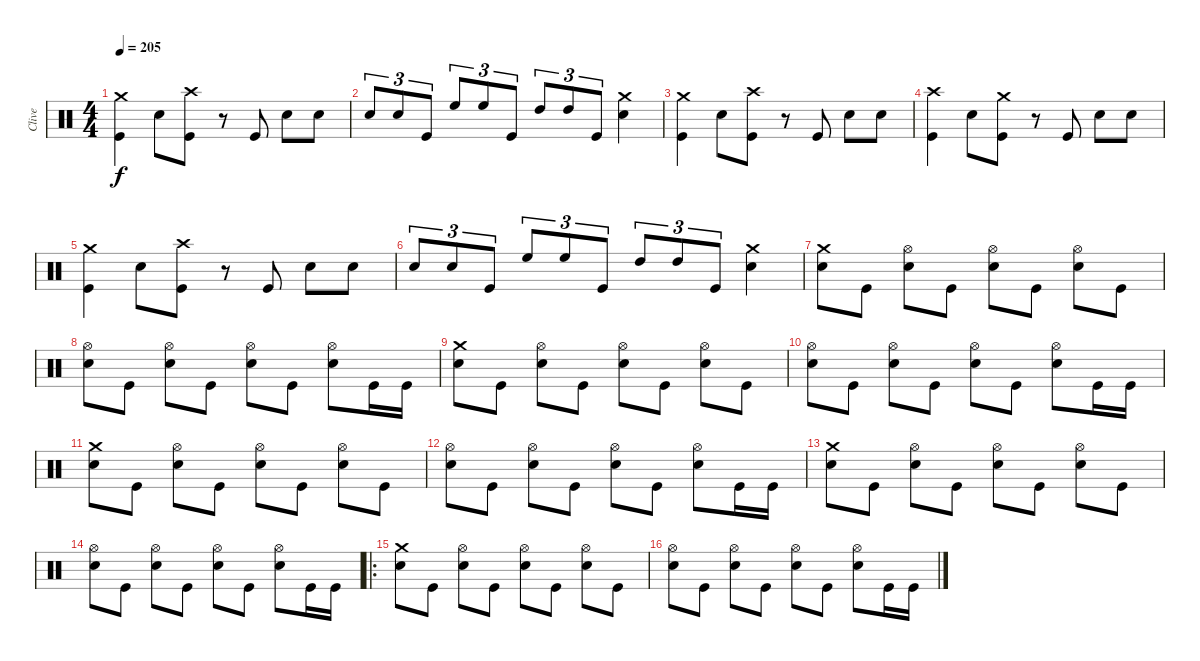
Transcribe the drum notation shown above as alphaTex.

\track ("Clive" "Clive") {instrument percussion}
\staff {score}
\articulation defaults
\ts (4 4)
\tempo 205
\clef neutral
\ks c
("Crash medium (hit)" "Kick (hit)").4{dy f} "Snare (hit) 2".8 ("Crash high (hit)" "Kick (hit)").8 r.8 "Kick (hit)".8 "Snare (hit) 2".8 "Snare (hit) 2".8 |
"Snare (hit) 2".8{tu (3 2)} "Snare (hit) 2".8{tu (3 2)} "Kick (hit)".8{tu (3 2)} "High Floor Tom (hit)".8{tu (3 2)} "High Floor Tom (hit)".8{tu (3 2)} "Kick (hit)".8{tu (3 2)} "High Tom (hit)".8{tu (3 2)} "High Tom (hit)".8{tu (3 2)} "Kick (hit)".8{tu (3 2)} ("Crash medium (hit)" "Snare (hit) 2").4 |
("Crash medium (hit)" "Kick (hit)").4 "Snare (hit) 2".8 ("Crash high (hit)" "Kick (hit)").8 r.8 "Kick (hit)".8 "Snare (hit) 2".8 "Snare (hit) 2".8 |
("Crash high (hit)" "Kick (hit)").4 "Snare (hit) 2".8 ("Crash medium (hit)" "Kick (hit)").8 r.8 "Kick (hit)".8 "Snare (hit) 2".8 "Snare (hit) 2".8 |
("Crash medium (hit)" "Kick (hit)").4 "Snare (hit) 2".8 ("Crash high (hit)" "Kick (hit)").8 r.8 "Kick (hit)".8 "Snare (hit) 2".8 "Snare (hit) 2".8 |
"Snare (hit) 2".8{tu (3 2)} "Snare (hit) 2".8{tu (3 2)} "Kick (hit)".8{tu (3 2)} "High Floor Tom (hit)".8{tu (3 2)} "High Floor Tom (hit)".8{tu (3 2)} "Kick (hit)".8{tu (3 2)} "High Tom (hit)".8{tu (3 2)} "High Tom (hit)".8{tu (3 2)} "Kick (hit)".8{tu (3 2)} ("Crash medium (hit)" "Snare (hit) 2").4 |
("Crash medium (hit)" "Snare (hit) 2").8 "Kick (hit)".8 ("Hi-Hat (open)" "Snare (hit) 2").8 "Kick (hit)".8 ("Hi-Hat (open)" "Snare (hit) 2").8 "Kick (hit)".8 ("Hi-Hat (open)" "Snare (hit) 2").8 "Kick (hit)".8 |
("Hi-Hat (open)" "Snare (hit) 2").8 "Kick (hit)".8 ("Hi-Hat (open)" "Snare (hit) 2").8 "Kick (hit)".8 ("Hi-Hat (open)" "Snare (hit) 2").8 "Kick (hit)".8 ("Hi-Hat (open)" "Snare (hit) 2").8 "Kick (hit)".16 "Kick (hit)".16 |
("Crash medium (hit)" "Snare (hit) 2").8 "Kick (hit)".8 ("Hi-Hat (open)" "Snare (hit) 2").8 "Kick (hit)".8 ("Hi-Hat (open)" "Snare (hit) 2").8 "Kick (hit)".8 ("Hi-Hat (open)" "Snare (hit) 2").8 "Kick (hit)".8 |
("Hi-Hat (open)" "Snare (hit) 2").8 "Kick (hit)".8 ("Hi-Hat (open)" "Snare (hit) 2").8 "Kick (hit)".8 ("Hi-Hat (open)" "Snare (hit) 2").8 "Kick (hit)".8 ("Hi-Hat (open)" "Snare (hit) 2").8 "Kick (hit)".16 "Kick (hit)".16 |
("Crash medium (hit)" "Snare (hit) 2").8 "Kick (hit)".8 ("Hi-Hat (open)" "Snare (hit) 2").8 "Kick (hit)".8 ("Hi-Hat (open)" "Snare (hit) 2").8 "Kick (hit)".8 ("Hi-Hat (open)" "Snare (hit) 2").8 "Kick (hit)".8 |
("Hi-Hat (open)" "Snare (hit) 2").8 "Kick (hit)".8 ("Hi-Hat (open)" "Snare (hit) 2").8 "Kick (hit)".8 ("Hi-Hat (open)" "Snare (hit) 2").8 "Kick (hit)".8 ("Hi-Hat (open)" "Snare (hit) 2").8 "Kick (hit)".16 "Kick (hit)".16 |
("Crash medium (hit)" "Snare (hit) 2").8 "Kick (hit)".8 ("Hi-Hat (open)" "Snare (hit) 2").8 "Kick (hit)".8 ("Hi-Hat (open)" "Snare (hit) 2").8 "Kick (hit)".8 ("Hi-Hat (open)" "Snare (hit) 2").8 "Kick (hit)".8 |
("Hi-Hat (open)" "Snare (hit) 2").8 "Kick (hit)".8 ("Hi-Hat (open)" "Snare (hit) 2").8 "Kick (hit)".8 ("Hi-Hat (open)" "Snare (hit) 2").8 "Kick (hit)".8 ("Hi-Hat (open)" "Snare (hit) 2").8 "Kick (hit)".16 "Kick (hit)".16 |
\ro
("Crash medium (hit)" "Snare (hit) 2").8 "Kick (hit)".8 ("Hi-Hat (open)" "Snare (hit) 2").8 "Kick (hit)".8 ("Hi-Hat (open)" "Snare (hit) 2").8 "Kick (hit)".8 ("Hi-Hat (open)" "Snare (hit) 2").8 "Kick (hit)".8 |
("Hi-Hat (open)" "Snare (hit) 2").8 "Kick (hit)".8 ("Hi-Hat (open)" "Snare (hit) 2").8 "Kick (hit)".8 ("Hi-Hat (open)" "Snare (hit) 2").8 "Kick (hit)".8 ("Hi-Hat (open)" "Snare (hit) 2").8 "Kick (hit)".16 "Kick (hit)".16
